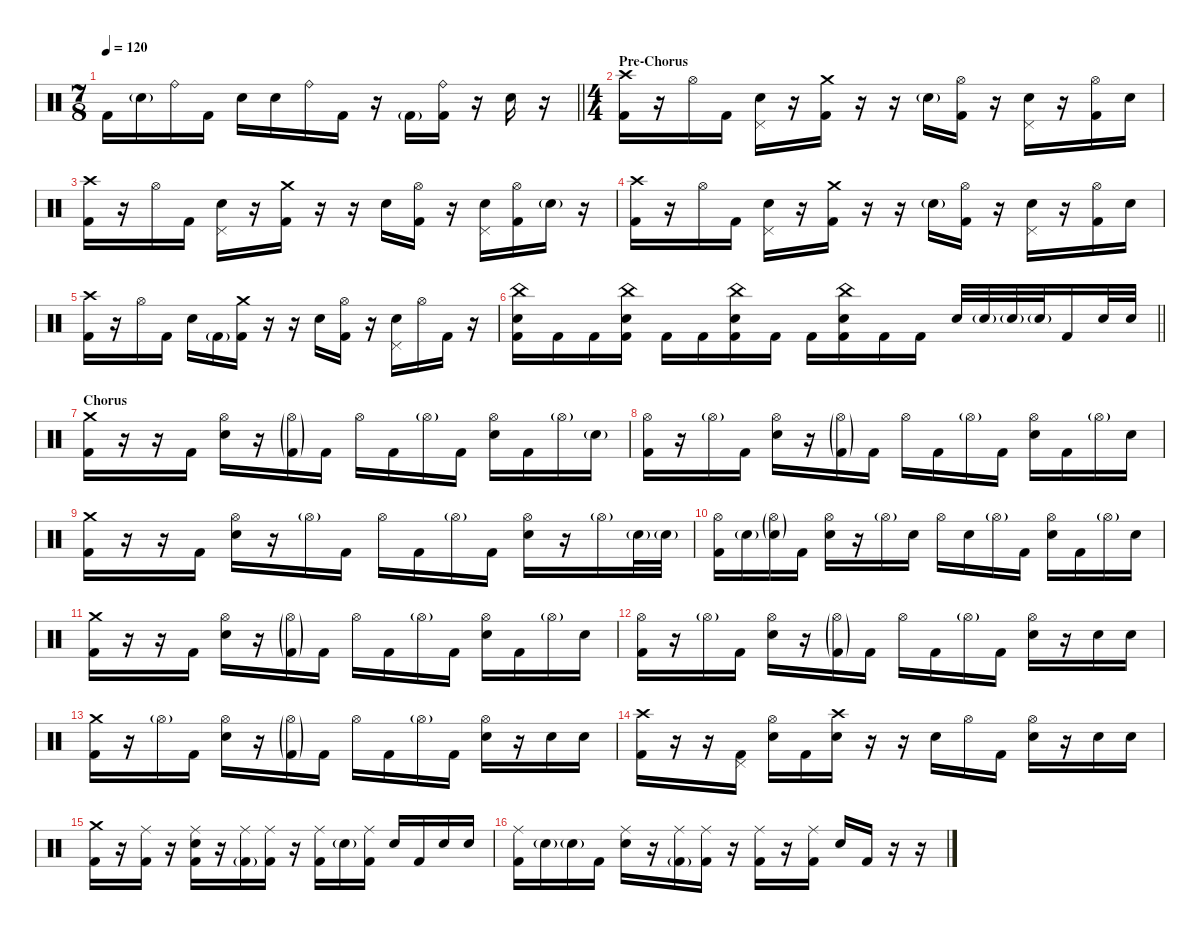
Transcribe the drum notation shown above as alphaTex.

\defaultSystemsLayout 4
\hideDynamics
\bracketExtendMode nobrackets
\singleTrackTrackNamePolicy hidden
\multiTrackTrackNamePolicy hidden
\firstSystemTrackNameMode fullname
\firstSystemTrackNameOrientation horizontal
\otherSystemsTrackNameOrientation horizontal
\track ("Martin Axenrot - Drums" "drm.") {instrument percussion}
\staff {score}
\articulation defaults
\ts (7 8)
\beaming (8 2 2 2 2)
\tempo 120
\clef neutral
\barLineRight lightlight
\ks c "Kick (hit) 2".16{dy f beam Down} "Snare (hit) 2"{g}.16{dy mf beam Down} "Ride (bell)".16{dy f beam Down} "Kick (hit) 2".16{beam Down} "Snare (hit) 2".16{beam Down} "Snare (hit) 2".16{beam Down} "Ride (bell)".16{beam Down} "Kick (hit) 2".16{beam Down}
r.16{beam Down} "Kick (hit) 2"{g}.16{dy mf beam Down} ("Ride (bell)" "Kick (hit) 2").16{dy f beam Down} r.16{beam Down} "Snare (hit) 2".16{beam Down} r.16{beam Down} |
\ts (4 4)
\beaming (8 2 2 2 2)
\section ("" "Pre-Chorus")
("Crash high (hit)" "Kick (hit) 2").16{beam Down} r.16{beam Down} "Hi-Hat (open)".16{beam Down} "Kick (hit) 2".16{beam Down} ("Snare (hit) 2" "Pedal Hi-Hat (hit)").16{beam Down} r.16{beam Down} ("Crash medium (hit)" "Kick (hit) 2").16{beam Down} r.16{beam Down} r.16{beam Down} "Snare (hit) 2"{g}.16{dy mf beam Down} ("Hi-Hat (open)" "Kick (hit) 2").16{dy f beam Down} r.16{beam Down} ("Snare (hit) 2" "Pedal Hi-Hat (hit)").16{beam Down} r.16{beam Down} ("Hi-Hat (open)" "Kick (hit) 2").16{beam Down} "Snare (hit) 2".16{beam Down} |
("Crash high (hit)" "Kick (hit) 2").16{beam Down} r.16{beam Down} "Hi-Hat (open)".16{beam Down} "Kick (hit) 2".16{beam Down} ("Snare (hit) 2" "Pedal Hi-Hat (hit)").16{beam Down} r.16{beam Down} ("Crash medium (hit)" "Kick (hit) 2").16{beam Down} r.16{beam Down} r.16{beam Down} "Snare (hit) 2".16{beam Down} ("Hi-Hat (open)" "Kick (hit) 2").16{beam Down} r.16{beam Down} ("Snare (hit) 2" "Pedal Hi-Hat (hit)").16{beam Down} ("Hi-Hat (open)" "Kick (hit) 2").16{beam Down} "Snare (hit) 2"{g}.16{dy mf beam Down} r.16{beam Down} |
("Crash high (hit)" "Kick (hit) 2").16{dy f beam Down} r.16{beam Down} "Hi-Hat (open)".16{beam Down} "Kick (hit) 2".16{beam Down} ("Snare (hit) 2" "Pedal Hi-Hat (hit)").16{beam Down} r.16{beam Down} ("Crash medium (hit)" "Kick (hit) 2").16{beam Down} r.16{beam Down} r.16{beam Down} "Snare (hit) 2"{g}.16{dy mf beam Down} ("Hi-Hat (open)" "Kick (hit) 2").16{dy f beam Down} r.16{beam Down} ("Snare (hit) 2" "Pedal Hi-Hat (hit)").16{beam Down} r.16{beam Down} ("Hi-Hat (open)" "Kick (hit) 2").16{beam Down} "Snare (hit) 2".16{beam Down} |
("Crash high (hit)" "Kick (hit) 2").16{beam Down} r.16{beam Down} "Hi-Hat (open)".16{beam Down} "Kick (hit) 2".16{beam Down} "Snare (hit) 2".16{beam Down} "Kick (hit) 2"{g}.16{dy mf beam Down} ("Crash medium (hit)" "Kick (hit) 2").16{dy f beam Down} r.16{beam Down} r.16{beam Down} "Snare (hit) 2".16{beam Down} ("Hi-Hat (open)" "Kick (hit) 2").16{beam Down} r.16{beam Down} ("Snare (hit) 2" "Pedal Hi-Hat (hit)").16{beam Down} "Hi-Hat (open)".16{beam Down} "Kick (hit) 2".16{beam Down} r.16{beam Down} |
\barLineRight lightlight
("China (hit)" "Snare (hit) 2" "Kick (hit) 2").16{beam Down} "Kick (hit) 2".16{beam Down} "Kick (hit) 2".16{beam Down} ("China (hit)" "Snare (hit) 2" "Kick (hit) 2").16{beam Down} "Kick (hit) 2".16{beam Down} "Kick (hit) 2".16{beam Down} ("China (hit)" "Snare (hit) 2" "Kick (hit) 2").16{beam Down} "Kick (hit) 2".16{beam Down} "Kick (hit) 2".16{beam Down} ("China (hit)" "Snare (hit) 2" "Kick (hit) 2").16{beam Down} "Kick (hit) 2".16{beam Down} "Kick (hit) 2".16{beam Down} "Snare (hit) 2".32{beam Up} "Snare (hit) 2"{g}.32{dy mf beam Up} "Snare (hit) 2"{g}.32{beam Up} "Snare (hit) 2"{g}.32{beam Up} "Kick (hit) 2".16{dy f beam Up} "Snare (hit) 2".32{beam Up} "Snare (hit) 2".32{beam Up} |
\section ("" "Chorus")
("Crash medium (hit)" "Kick (hit) 2").16{beam Down} r.16{beam Down} r.16{beam Down} "Kick (hit) 2".16{beam Down} ("Hi-Hat (open)" "Snare (hit) 2").16{beam Down} r.16{beam Down} ("Hi-Hat (open)"{g} "Kick (hit) 2"{g}).16{dy mf beam Down} "Kick (hit) 2".16{dy f beam Down} "Hi-Hat (open)".16{beam Down} "Kick (hit) 2".16{beam Down} "Hi-Hat (open)"{g}.16{dy mf beam Down} "Kick (hit) 2".16{dy f beam Down} ("Hi-Hat (open)" "Snare (hit) 2").16{beam Down} "Kick (hit) 2".16{beam Down} "Hi-Hat (open)"{g}.16{dy mf beam Down} "Snare (hit) 2"{g}.16{beam Down} |
("Hi-Hat (open)" "Kick (hit) 2").16{dy f beam Down} r.16{beam Down} "Hi-Hat (open)"{g}.16{dy mf beam Down} "Kick (hit) 2".16{dy f beam Down} ("Hi-Hat (open)" "Snare (hit) 2").16{beam Down} r.16{beam Down} ("Hi-Hat (open)"{g} "Kick (hit) 2"{g}).16{dy mf beam Down} "Kick (hit) 2".16{dy f beam Down} "Hi-Hat (open)".16{beam Down} "Kick (hit) 2".16{beam Down} "Hi-Hat (open)"{g}.16{dy mf beam Down} "Kick (hit) 2".16{dy f beam Down} ("Hi-Hat (open)" "Snare (hit) 2").16{beam Down} "Kick (hit) 2".16{beam Down} "Hi-Hat (open)"{g}.16{dy mf beam Down} "Snare (hit) 2".16{dy f beam Down} |
("Crash medium (hit)" "Kick (hit) 2").16{beam Down} r.16{beam Down} r.16{beam Down} "Kick (hit) 2".16{beam Down} ("Hi-Hat (open)" "Snare (hit) 2").16{beam Down} r.16{beam Down} "Hi-Hat (open)"{g}.16{dy mf beam Down} "Kick (hit) 2".16{dy f beam Down} "Hi-Hat (open)".16{beam Down} "Kick (hit) 2".16{beam Down} "Hi-Hat (open)"{g}.16{dy mf beam Down} "Kick (hit) 2".16{dy f beam Down} ("Hi-Hat (open)" "Snare (hit) 2").16{beam Down} r.16{beam Down} "Hi-Hat (open)"{g}.16{dy mf beam Down} "Snare (hit) 2"{g}.32{beam Down} "Snare (hit) 2"{g}.32{beam Down} |
("Hi-Hat (open)" "Kick (hit) 2").16{dy f beam Down} "Snare (hit) 2"{g}.16{dy mf beam Down} ("Hi-Hat (open)"{g} "Snare (hit) 2"{g}).16{beam Down} "Kick (hit) 2".16{dy f beam Down} ("Hi-Hat (open)" "Snare (hit) 2").16{beam Down} r.16{beam Down} "Hi-Hat (open)"{g}.16{dy mf beam Down} "Snare (hit) 2".16{dy f beam Down} "Hi-Hat (open)".16{beam Down} "Snare (hit) 2".16{beam Down} "Hi-Hat (open)"{g}.16{dy mf beam Down} "Kick (hit) 2".16{dy f beam Down} ("Hi-Hat (open)" "Snare (hit) 2").16{beam Down} "Kick (hit) 2".16{beam Down} "Hi-Hat (open)"{g}.16{dy mf beam Down} "Snare (hit) 2".16{dy f beam Down} |
("Crash medium (hit)" "Kick (hit) 2").16{beam Down} r.16{beam Down} r.16{beam Down} "Kick (hit) 2".16{beam Down} ("Hi-Hat (open)" "Snare (hit) 2").16{beam Down} r.16{beam Down} ("Hi-Hat (open)"{g} "Kick (hit) 2"{g}).16{dy mf beam Down} "Kick (hit) 2".16{dy f beam Down} "Hi-Hat (open)".16{beam Down} "Kick (hit) 2".16{beam Down} "Hi-Hat (open)"{g}.16{dy mf beam Down} "Kick (hit) 2".16{dy f beam Down} ("Hi-Hat (open)" "Snare (hit) 2").16{beam Down} "Kick (hit) 2".16{beam Down} "Hi-Hat (open)"{g}.16{dy mf beam Down} "Snare (hit) 2".16{dy f beam Down} |
("Hi-Hat (open)" "Kick (hit) 2").16{beam Down} r.16{beam Down} "Hi-Hat (open)"{g}.16{dy mf beam Down} "Kick (hit) 2".16{dy f beam Down} ("Hi-Hat (open)" "Snare (hit) 2").16{beam Down} r.16{beam Down} ("Hi-Hat (open)"{g} "Kick (hit) 2"{g}).16{dy mf beam Down} "Kick (hit) 2".16{dy f beam Down} "Hi-Hat (open)".16{beam Down} "Kick (hit) 2".16{beam Down} "Hi-Hat (open)"{g}.16{dy mf beam Down} "Kick (hit) 2".16{dy f beam Down} ("Hi-Hat (open)" "Snare (hit) 2").16{beam Down} r.16{beam Down} "Snare (hit) 2".16{beam Down} "Snare (hit) 2".16{beam Down} |
("Crash medium (hit)" "Kick (hit) 2").16{beam Down} r.16{beam Down} "Hi-Hat (open)"{g}.16{dy mf beam Down} "Kick (hit) 2".16{dy f beam Down} ("Hi-Hat (open)" "Snare (hit) 2").16{beam Down} r.16{beam Down} ("Hi-Hat (open)"{g} "Kick (hit) 2"{g}).16{dy mf beam Down} "Kick (hit) 2".16{dy f beam Down} "Hi-Hat (open)".16{beam Down} "Kick (hit) 2".16{beam Down} "Hi-Hat (open)"{g}.16{dy mf beam Down} "Kick (hit) 2".16{dy f beam Down} ("Hi-Hat (open)" "Snare (hit) 2").16{beam Down} r.16{beam Down} "Snare (hit) 2".16{beam Down} "Snare (hit) 2".16{beam Down} |
("Crash high (hit)" "Kick (hit) 2").16{beam Down} r.16{beam Down} r.16{beam Down} ("Pedal Hi-Hat (hit)" "Kick (hit) 2").16{beam Down} ("Hi-Hat (open)" "Snare (hit) 2").16{beam Down} "Kick (hit) 2".16{beam Down} ("Crash high (hit)" "Snare (hit) 2").16{beam Down} r.16{beam Down} r.16{beam Down} "Snare (hit) 2".16{beam Down} "Hi-Hat (open)".16{beam Down} "Kick (hit) 2".16{beam Down} ("Hi-Hat (open)" "Snare (hit) 2").16{beam Down} r.16{beam Down} "Snare (hit) 2".16{beam Down} "Snare (hit) 2".16{beam Down} |
("Crash medium (hit)" "Kick (hit) 2").16{beam Down} r.16{beam Down} ("Ride (middle)" "Kick (hit) 2").16{beam Down} r.16{beam Down} ("Ride (middle)" "Snare (hit) 2" "Kick (hit) 2").16{beam Down} r.16{beam Down} ("Ride (middle)" "Kick (hit) 2"{g}).16{dy mf beam Down} ("Ride (middle)" "Kick (hit) 2").16{dy f beam Down} r.16{beam Down} ("Ride (middle)" "Kick (hit) 2").16{beam Down} "Snare (hit) 2"{g}.16{dy mf beam Down} ("Ride (middle)" "Kick (hit) 2").16{dy f beam Down} "Snare (hit) 2".16{beam Up} "Kick (hit) 2".16{beam Up} "Snare (hit) 2".16{beam Up} "Snare (hit) 2".16{beam Up} |
("Ride (middle)" "Kick (hit) 2").16{beam Down} "Snare (hit) 2"{g}.16{dy mf beam Down} "Snare (hit) 2"{g}.16{beam Down} "Kick (hit) 2".16{dy f beam Down} ("Ride (middle)" "Snare (hit) 2").16{beam Down} r.16{beam Down} ("Ride (middle)" "Kick (hit) 2"{g}).16{dy mf beam Down} ("Ride (middle)" "Kick (hit) 2").16{dy f beam Down} r.16{beam Down} ("Ride (middle)" "Kick (hit) 2").16{beam Down} r.16{beam Down} ("Ride (middle)" "Kick (hit) 2").16{beam Down} "Snare (hit) 2".16{beam Up} "Kick (hit) 2".16{beam Up} r.16{beam Up} r.16{beam Up}
